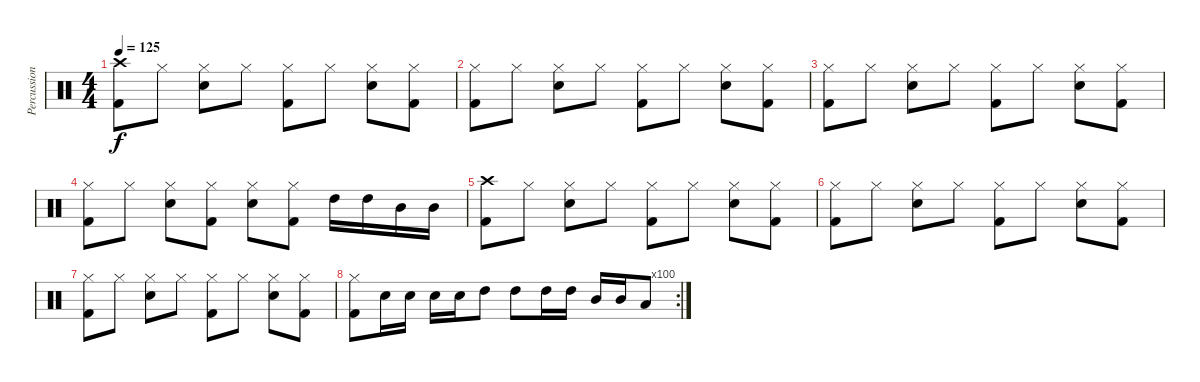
\track ("Percussions" "Percussion") {instrument percussion}
\staff {score}
\articulation defaults
\ts (4 4)
\tempo 125
\clef neutral
\ks c
("Crash high (hit)" "Kick (hit) 2").8{dy f} "Hi-Hat (closed)".8 ("Hi-Hat (closed)" "Electric Snare (hit)").8 "Hi-Hat (closed)".8 ("Hi-Hat (closed)" "Kick (hit) 2").8 "Hi-Hat (closed)".8 ("Hi-Hat (closed)" "Electric Snare (hit)").8 ("Hi-Hat (closed)" "Kick (hit) 2").8 |
("Hi-Hat (closed)" "Kick (hit) 2").8 "Hi-Hat (closed)".8 ("Hi-Hat (closed)" "Electric Snare (hit)").8 "Hi-Hat (closed)".8 ("Hi-Hat (closed)" "Kick (hit) 2").8 "Hi-Hat (closed)".8 ("Hi-Hat (closed)" "Electric Snare (hit)").8 ("Hi-Hat (closed)" "Kick (hit) 2").8 |
("Hi-Hat (closed)" "Kick (hit) 2").8 "Hi-Hat (closed)".8 ("Hi-Hat (closed)" "Electric Snare (hit)").8 "Hi-Hat (closed)".8 ("Hi-Hat (closed)" "Kick (hit) 2").8 "Hi-Hat (closed)".8 ("Hi-Hat (closed)" "Electric Snare (hit)").8 ("Hi-Hat (closed)" "Kick (hit) 2").8 |
("Hi-Hat (closed)" "Kick (hit) 2").8 "Hi-Hat (closed)".8 ("Hi-Hat (closed)" "Electric Snare (hit)").8 ("Hi-Hat (closed)" "Kick (hit) 2").8 ("Hi-Hat (closed)" "Electric Snare (hit)").8 ("Hi-Hat (closed)" "Kick (hit) 2").8 "High Tom (hit)".16 "High Tom (hit)".16 "Mid Tom (hit)".16 "Mid Tom (hit)".16 |
("Crash high (hit)" "Kick (hit) 2").8 "Hi-Hat (closed)".8 ("Hi-Hat (closed)" "Electric Snare (hit)").8 "Hi-Hat (closed)".8 ("Hi-Hat (closed)" "Kick (hit) 2").8 "Hi-Hat (closed)".8 ("Hi-Hat (closed)" "Electric Snare (hit)").8 ("Hi-Hat (closed)" "Kick (hit) 2").8 |
("Hi-Hat (closed)" "Kick (hit) 2").8 "Hi-Hat (closed)".8 ("Hi-Hat (closed)" "Electric Snare (hit)").8 "Hi-Hat (closed)".8 ("Hi-Hat (closed)" "Kick (hit) 2").8 "Hi-Hat (closed)".8 ("Hi-Hat (closed)" "Electric Snare (hit)").8 ("Hi-Hat (closed)" "Kick (hit) 2").8 |
("Hi-Hat (closed)" "Kick (hit) 2").8 "Hi-Hat (closed)".8 ("Hi-Hat (closed)" "Electric Snare (hit)").8 "Hi-Hat (closed)".8 ("Hi-Hat (closed)" "Kick (hit) 2").8 "Hi-Hat (closed)".8 ("Hi-Hat (closed)" "Electric Snare (hit)").8 ("Hi-Hat (closed)" "Kick (hit) 2").8 |
\rc 100
("Hi-Hat (closed)" "Kick (hit) 2").8 "Electric Snare (hit)".16 "Electric Snare (hit)".16 "Electric Snare (hit)".16 "Electric Snare (hit)".16 "High Tom (hit)".8 "High Tom (hit)".8 "High Tom (hit)".16 "High Tom (hit)".16 "Mid Tom (hit)".16 "Mid Tom (hit)".16 "Low Tom (hit)".8
